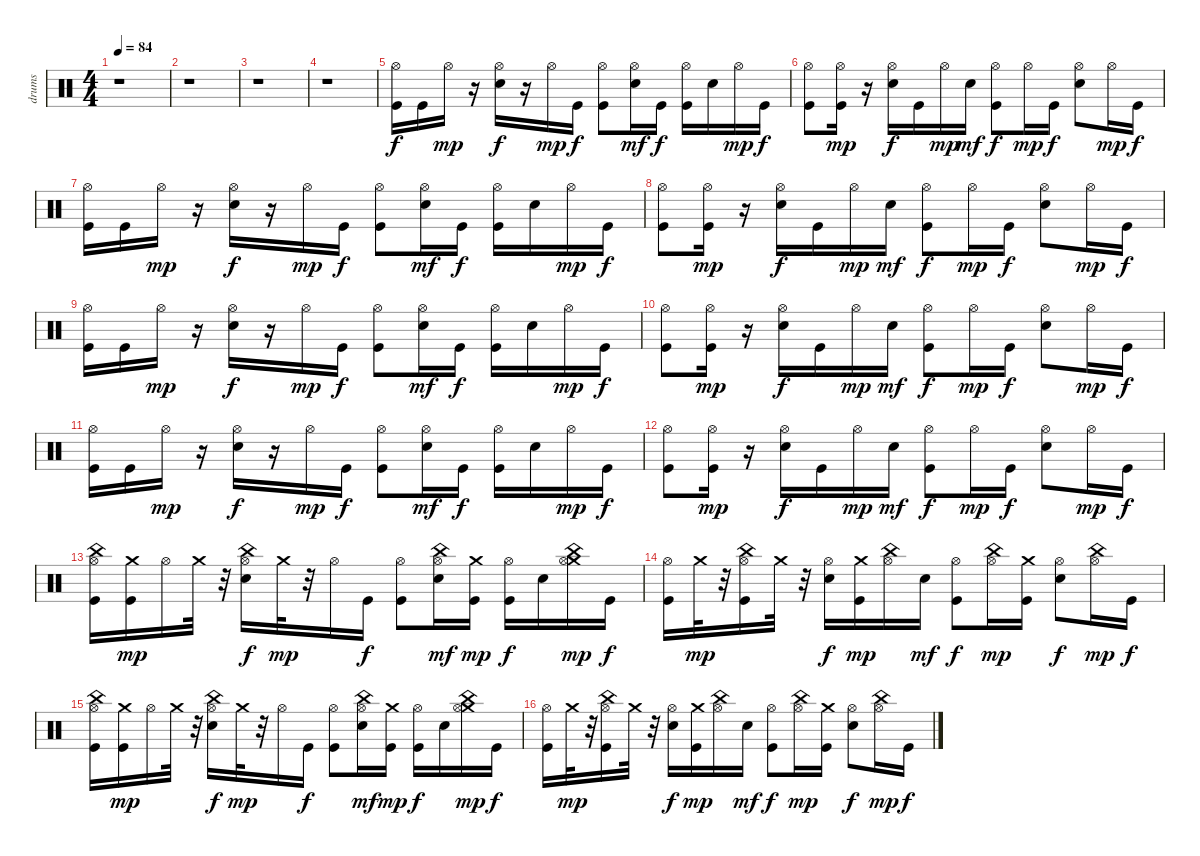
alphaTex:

\track ("drums" "drums") {instrument percussion}
\staff {score}
\articulation defaults
\ts (4 4)
\tempo 84
\clef neutral
\ks c
r.1{dy f} |
r.1 |
r.1 |
r.1 |
("Hi-Hat (open)" "Kick (hit)").16 "Kick (hit)".16 "Hi-Hat (open)".16{dy mp} r.16 ("Hi-Hat (open)" "Electric Snare (hit)").16{dy f} r.16 "Hi-Hat (open)".16{dy mp} "Kick (hit)".16{dy f} ("Hi-Hat (open)" "Kick (hit)").8 ("Hi-Hat (open)" "Electric Snare (hit)").16{dy mf} "Kick (hit)".16{dy f} ("Hi-Hat (open)" "Kick (hit)").16 "Electric Snare (hit)".16 "Hi-Hat (open)".16{dy mp} "Kick (hit)".16{dy f} |
("Hi-Hat (open)" "Kick (hit)").8 ("Hi-Hat (open)" "Kick (hit)").16{dy mp} r.16 ("Electric Snare (hit)" "Hi-Hat (open)").16{dy f} "Kick (hit)".16 "Hi-Hat (open)".16{dy mp} "Electric Snare (hit)".16{dy mf} ("Kick (hit)" "Hi-Hat (open)").8{dy f} "Hi-Hat (open)".16{dy mp} "Kick (hit)".16{dy f} ("Electric Snare (hit)" "Hi-Hat (open)").8 "Hi-Hat (open)".16{dy mp} "Kick (hit)".16{dy f} |
("Hi-Hat (open)" "Kick (hit)").16 "Kick (hit)".16 "Hi-Hat (open)".16{dy mp} r.16 ("Hi-Hat (open)" "Electric Snare (hit)").16{dy f} r.16 "Hi-Hat (open)".16{dy mp} "Kick (hit)".16{dy f} ("Hi-Hat (open)" "Kick (hit)").8 ("Hi-Hat (open)" "Electric Snare (hit)").16{dy mf} "Kick (hit)".16{dy f} ("Hi-Hat (open)" "Kick (hit)").16 "Electric Snare (hit)".16 "Hi-Hat (open)".16{dy mp} "Kick (hit)".16{dy f} |
("Hi-Hat (open)" "Kick (hit)").8 ("Hi-Hat (open)" "Kick (hit)").16{dy mp} r.16 ("Electric Snare (hit)" "Hi-Hat (open)").16{dy f} "Kick (hit)".16 "Hi-Hat (open)".16{dy mp} "Electric Snare (hit)".16{dy mf} ("Kick (hit)" "Hi-Hat (open)").8{dy f} "Hi-Hat (open)".16{dy mp} "Kick (hit)".16{dy f} ("Electric Snare (hit)" "Hi-Hat (open)").8 "Hi-Hat (open)".16{dy mp} "Kick (hit)".16{dy f} |
("Hi-Hat (open)" "Kick (hit)").16 "Kick (hit)".16 "Hi-Hat (open)".16{dy mp} r.16 ("Hi-Hat (open)" "Electric Snare (hit)").16{dy f} r.16 "Hi-Hat (open)".16{dy mp} "Kick (hit)".16{dy f} ("Hi-Hat (open)" "Kick (hit)").8 ("Hi-Hat (open)" "Electric Snare (hit)").16{dy mf} "Kick (hit)".16{dy f} ("Hi-Hat (open)" "Kick (hit)").16 "Electric Snare (hit)".16 "Hi-Hat (open)".16{dy mp} "Kick (hit)".16{dy f} |
("Hi-Hat (open)" "Kick (hit)").8 ("Hi-Hat (open)" "Kick (hit)").16{dy mp} r.16 ("Electric Snare (hit)" "Hi-Hat (open)").16{dy f} "Kick (hit)".16 "Hi-Hat (open)".16{dy mp} "Electric Snare (hit)".16{dy mf} ("Kick (hit)" "Hi-Hat (open)").8{dy f} "Hi-Hat (open)".16{dy mp} "Kick (hit)".16{dy f} ("Electric Snare (hit)" "Hi-Hat (open)").8 "Hi-Hat (open)".16{dy mp} "Kick (hit)".16{dy f} |
("Hi-Hat (open)" "Kick (hit)").16 "Kick (hit)".16 "Hi-Hat (open)".16{dy mp} r.16 ("Hi-Hat (open)" "Electric Snare (hit)").16{dy f} r.16 "Hi-Hat (open)".16{dy mp} "Kick (hit)".16{dy f} ("Hi-Hat (open)" "Kick (hit)").8 ("Hi-Hat (open)" "Electric Snare (hit)").16{dy mf} "Kick (hit)".16{dy f} ("Hi-Hat (open)" "Kick (hit)").16 "Electric Snare (hit)".16 "Hi-Hat (open)".16{dy mp} "Kick (hit)".16{dy f} |
("Hi-Hat (open)" "Kick (hit)").8 ("Hi-Hat (open)" "Kick (hit)").16{dy mp} r.16 ("Electric Snare (hit)" "Hi-Hat (open)").16{dy f} "Kick (hit)".16 "Hi-Hat (open)".16{dy mp} "Electric Snare (hit)".16{dy mf} ("Kick (hit)" "Hi-Hat (open)").8{dy f} "Hi-Hat (open)".16{dy mp} "Kick (hit)".16{dy f} ("Electric Snare (hit)" "Hi-Hat (open)").8 "Hi-Hat (open)".16{dy mp} "Kick (hit)".16{dy f} |
("China (hit)" "Hi-Hat (open)" "Kick (hit)").16 ("Crash medium (hit)" "Kick (hit)").16{dy mp} "Hi-Hat (open)".16 "Crash medium (hit)".32 r.32 ("China (hit)" "Hi-Hat (open)" "Electric Snare (hit)").16{dy f} "Crash medium (hit)".32{dy mp} r.32 "Hi-Hat (open)".16 "Kick (hit)".16{dy f} ("Hi-Hat (open)" "Kick (hit)").8 ("China (hit)" "Hi-Hat (open)" "Electric Snare (hit)").16{dy mf} ("Crash medium (hit)" "Kick (hit)").16{dy mp} ("Hi-Hat (open)" "Kick (hit)").16{dy f} "Electric Snare (hit)".16 ("China (hit)" "Crash medium (hit)" "Hi-Hat (open)").16{dy mp} "Kick (hit)".16{dy f} |
("Hi-Hat (open)" "Kick (hit)").16 "Crash medium (hit)".32{dy mp} r.32 ("China (hit)" "Hi-Hat (open)" "Kick (hit)").16 "Crash medium (hit)".32 r.32 ("Electric Snare (hit)" "Hi-Hat (open)").16{dy f} ("Crash medium (hit)" "Kick (hit)").16{dy mp} ("China (hit)" "Hi-Hat (open)").16 "Electric Snare (hit)".16{dy mf} ("Kick (hit)" "Hi-Hat (open)").8{dy f} ("China (hit)" "Hi-Hat (open)").16{dy mp} ("Crash medium (hit)" "Kick (hit)").16 ("Electric Snare (hit)" "Hi-Hat (open)").8{dy f} ("China (hit)" "Hi-Hat (open)").16{dy mp} "Kick (hit)".16{dy f} |
("China (hit)" "Hi-Hat (open)" "Kick (hit)").16 ("Crash medium (hit)" "Kick (hit)").16{dy mp} "Hi-Hat (open)".16 "Crash medium (hit)".32 r.32 ("China (hit)" "Hi-Hat (open)" "Electric Snare (hit)").16{dy f} "Crash medium (hit)".32{dy mp} r.32 "Hi-Hat (open)".16 "Kick (hit)".16{dy f} ("Hi-Hat (open)" "Kick (hit)").8 ("China (hit)" "Hi-Hat (open)" "Electric Snare (hit)").16{dy mf} ("Crash medium (hit)" "Kick (hit)").16{dy mp} ("Hi-Hat (open)" "Kick (hit)").16{dy f} "Electric Snare (hit)".16 ("China (hit)" "Crash medium (hit)" "Hi-Hat (open)").16{dy mp} "Kick (hit)".16{dy f} |
("Hi-Hat (open)" "Kick (hit)").16 "Crash medium (hit)".32{dy mp} r.32 ("China (hit)" "Hi-Hat (open)" "Kick (hit)").16 "Crash medium (hit)".32 r.32 ("Electric Snare (hit)" "Hi-Hat (open)").16{dy f} ("Crash medium (hit)" "Kick (hit)").16{dy mp} ("China (hit)" "Hi-Hat (open)").16 "Electric Snare (hit)".16{dy mf} ("Kick (hit)" "Hi-Hat (open)").8{dy f} ("China (hit)" "Hi-Hat (open)").16{dy mp} ("Crash medium (hit)" "Kick (hit)").16 ("Electric Snare (hit)" "Hi-Hat (open)").8{dy f} ("China (hit)" "Hi-Hat (open)").16{dy mp} "Kick (hit)".16{dy f}
